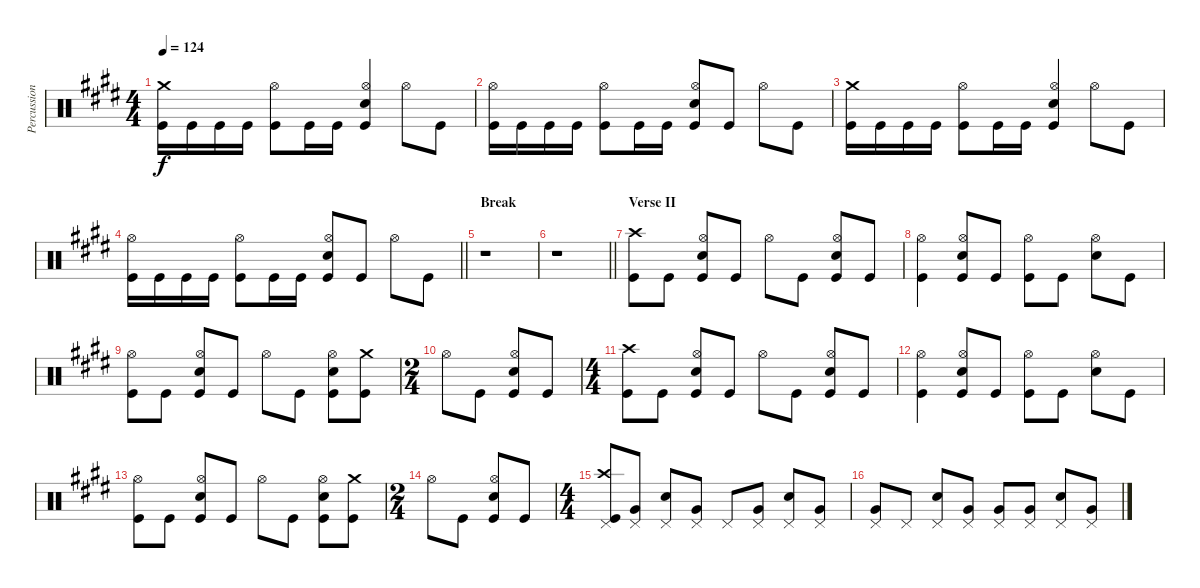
\track ("Percussion" "Percussion") {instrument percussion}
\staff {score}
\articulation defaults
\ts (4 4)
\tempo 124
\clef neutral
\ks e
("Crash medium (hit)" "Kick (hit)").16{dy f} "Kick (hit)".16 "Kick (hit)".16 "Kick (hit)".16 ("Hi-Hat (open)" "Kick (hit)").8 "Kick (hit)".16 "Kick (hit)".16 ("Hi-Hat (open)" "Electric Snare (hit)" "Kick (hit)").4 "Hi-Hat (open)".8 "Kick (hit)".8 |
("Hi-Hat (open)" "Kick (hit)").16 "Kick (hit)".16 "Kick (hit)".16 "Kick (hit)".16 ("Hi-Hat (open)" "Kick (hit)").8 "Kick (hit)".16 "Kick (hit)".16 ("Hi-Hat (open)" "Electric Snare (hit)" "Kick (hit)").8 "Kick (hit)".8 "Hi-Hat (open)".8 "Kick (hit)".8 |
("Crash medium (hit)" "Kick (hit)").16 "Kick (hit)".16 "Kick (hit)".16 "Kick (hit)".16 ("Hi-Hat (open)" "Kick (hit)").8 "Kick (hit)".16 "Kick (hit)".16 ("Hi-Hat (open)" "Electric Snare (hit)" "Kick (hit)").4 "Hi-Hat (open)".8 "Kick (hit)".8 |
\barLineRight lightlight
("Hi-Hat (open)" "Kick (hit)").16 "Kick (hit)".16 "Kick (hit)".16 "Kick (hit)".16 ("Hi-Hat (open)" "Kick (hit)").8 "Kick (hit)".16 "Kick (hit)".16 ("Hi-Hat (open)" "Electric Snare (hit)" "Kick (hit)").8 "Kick (hit)".8 "Hi-Hat (open)".8 "Kick (hit)".8 |
\section ("" "Break")
r.1 |
\barLineRight lightlight
r.1 |
\section ("" "Verse II")
("Crash high (hit)" "Kick (hit)").8 "Kick (hit)".8 ("Hi-Hat (open)" "Electric Snare (hit)" "Kick (hit)").8 "Kick (hit)".8 "Hi-Hat (open)".8 "Kick (hit)".8 ("Hi-Hat (open)" "Electric Snare (hit)" "Kick (hit)").8 "Kick (hit)".8 |
("Hi-Hat (open)" "Kick (hit)").4 ("Hi-Hat (open)" "Electric Snare (hit)" "Kick (hit)").8 "Kick (hit)".8 ("Hi-Hat (open)" "Kick (hit)").8 "Kick (hit)".8 ("Hi-Hat (open)" "Electric Snare (hit)").8 "Kick (hit)".8 |
("Hi-Hat (open)" "Kick (hit)").8 "Kick (hit)".8 ("Hi-Hat (open)" "Electric Snare (hit)" "Kick (hit)").8 "Kick (hit)".8 "Hi-Hat (open)".8 "Kick (hit)".8 ("Hi-Hat (open)" "Electric Snare (hit)" "Kick (hit)").8 ("Crash medium (hit)" "Kick (hit)").8 |
\ts (2 4)
"Hi-Hat (open)".8 "Kick (hit)".8 ("Hi-Hat (open)" "Electric Snare (hit)" "Kick (hit)").8 "Kick (hit)".8 |
\ts (4 4)
("Crash high (hit)" "Kick (hit)").8 "Kick (hit)".8 ("Hi-Hat (open)" "Electric Snare (hit)" "Kick (hit)").8 "Kick (hit)".8 "Hi-Hat (open)".8 "Kick (hit)".8 ("Hi-Hat (open)" "Electric Snare (hit)" "Kick (hit)").8 "Kick (hit)".8 |
("Hi-Hat (open)" "Kick (hit)").4 ("Hi-Hat (open)" "Electric Snare (hit)" "Kick (hit)").8 "Kick (hit)".8 ("Hi-Hat (open)" "Kick (hit)").8 "Kick (hit)".8 ("Hi-Hat (open)" "Electric Snare (hit)").8 "Kick (hit)".8 |
("Hi-Hat (open)" "Kick (hit)").8 "Kick (hit)".8 ("Hi-Hat (open)" "Electric Snare (hit)" "Kick (hit)").8 "Kick (hit)".8 "Hi-Hat (open)".8 "Kick (hit)".8 ("Hi-Hat (open)" "Electric Snare (hit)" "Kick (hit)").8 ("Crash medium (hit)" "Kick (hit)").8 |
\ts (2 4)
"Hi-Hat (open)".8 "Kick (hit)".8 ("Hi-Hat (open)" "Electric Snare (hit)" "Kick (hit)").8 "Kick (hit)".8 |
\ts (4 4)
("Crash high (hit)" "Pedal Hi-Hat (hit)" "Kick (hit)").8 ("Pedal Hi-Hat (hit)" "Very Low Tom (hit)").8 ("Pedal Hi-Hat (hit)" "Electric Snare (hit)").8 ("Pedal Hi-Hat (hit)" "Very Low Tom (hit)").8 "Pedal Hi-Hat (hit)".8 ("Pedal Hi-Hat (hit)" "Very Low Tom (hit)").8 ("Pedal Hi-Hat (hit)" "Electric Snare (hit)").8 ("Pedal Hi-Hat (hit)" "Very Low Tom (hit)").8 |
("Pedal Hi-Hat (hit)" "Very Low Tom (hit)").8 "Pedal Hi-Hat (hit)".8 ("Pedal Hi-Hat (hit)" "Electric Snare (hit)").8 ("Pedal Hi-Hat (hit)" "Very Low Tom (hit)").8 ("Pedal Hi-Hat (hit)" "Very Low Tom (hit)").8 ("Pedal Hi-Hat (hit)" "Very Low Tom (hit)").8 ("Pedal Hi-Hat (hit)" "Electric Snare (hit)").8 ("Pedal Hi-Hat (hit)" "Very Low Tom (hit)").8
